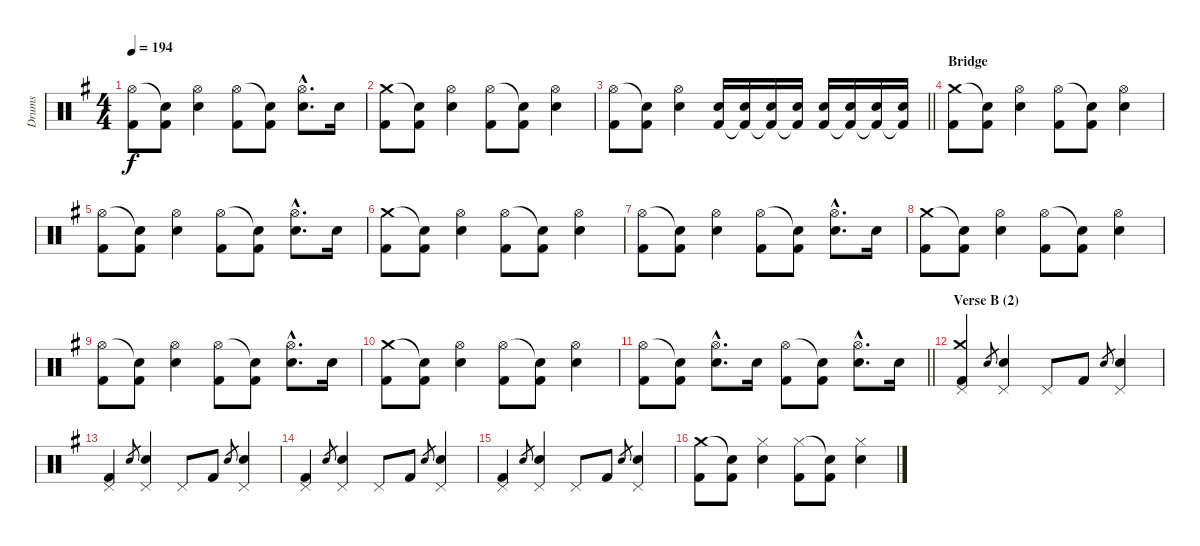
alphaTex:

\track ("Drums" "Drums") {instrument percussion}
\staff {score}
\articulation defaults
\ts (4 4)
\tempo 194
\clef neutral
\ks eminor
("Hi-Hat (open)" "Kick (hit) 2").8{dy f} ("Snare (hit)"{t} "Kick (hit) 2").8 ("Hi-Hat (open)" "Electric Snare (hit)").4 ("Hi-Hat (open)" "Kick (hit) 2").8 ("Snare (hit)"{t} "Kick (hit) 2").8 ("Hi-Hat (open)"{hac} "Electric Snare (hit)"{hac}).8{d} "Electric Snare (hit)".16 |
("Crash medium (hit)" "Kick (hit) 2").8 ("Snare (hit)"{t} "Kick (hit) 2").8 ("Hi-Hat (open)" "Electric Snare (hit)").4 ("Hi-Hat (open)" "Kick (hit) 2").8 ("Snare (hit)"{t} "Kick (hit) 2").8 ("Hi-Hat (open)" "Electric Snare (hit)").4 |
\barLineRight lightlight
("Hi-Hat (open)" "Kick (hit) 2").8 ("Snare (hit)"{t} "Kick (hit) 2").8 ("Hi-Hat (open)" "Electric Snare (hit)").4 ("Electric Snare (hit)" "Kick (hit) 2").16 ("Electric Snare (hit)" "Kick (hit) 2"{t}).16 ("Electric Snare (hit)" "Kick (hit) 2"{t}).16 ("Electric Snare (hit)" "Kick (hit) 2"{t}).16 ("Electric Snare (hit)" "Kick (hit) 2").16 ("Electric Snare (hit)" "Kick (hit) 2"{t}).16 ("Electric Snare (hit)" "Kick (hit) 2"{t}).16 ("Electric Snare (hit)" "Kick (hit) 2"{t}).16 |
\section ("" "Bridge")
("Crash medium (hit)" "Kick (hit) 2").8 ("Snare (hit)"{t} "Kick (hit) 2").8 ("Hi-Hat (open)" "Electric Snare (hit)").4 ("Hi-Hat (open)" "Kick (hit) 2").8 ("Snare (hit)"{t} "Kick (hit) 2").8 ("Hi-Hat (open)" "Electric Snare (hit)").4 |
("Hi-Hat (open)" "Kick (hit) 2").8 ("Snare (hit)"{t} "Kick (hit) 2").8 ("Hi-Hat (open)" "Electric Snare (hit)").4 ("Hi-Hat (open)" "Kick (hit) 2").8 ("Snare (hit)"{t} "Kick (hit) 2").8 ("Hi-Hat (open)"{hac} "Electric Snare (hit)"{hac}).8{d} "Electric Snare (hit)".16 |
("Crash medium (hit)" "Kick (hit) 2").8 ("Snare (hit)"{t} "Kick (hit) 2").8 ("Hi-Hat (open)" "Electric Snare (hit)").4 ("Hi-Hat (open)" "Kick (hit) 2").8 ("Snare (hit)"{t} "Kick (hit) 2").8 ("Hi-Hat (open)" "Electric Snare (hit)").4 |
("Hi-Hat (open)" "Kick (hit) 2").8 ("Snare (hit)"{t} "Kick (hit) 2").8 ("Hi-Hat (open)" "Electric Snare (hit)").4 ("Hi-Hat (open)" "Kick (hit) 2").8 ("Snare (hit)"{t} "Kick (hit) 2").8 ("Hi-Hat (open)"{hac} "Electric Snare (hit)"{hac}).8{d} "Electric Snare (hit)".16 |
("Crash medium (hit)" "Kick (hit) 2").8 ("Snare (hit)"{t} "Kick (hit) 2").8 ("Hi-Hat (open)" "Electric Snare (hit)").4 ("Hi-Hat (open)" "Kick (hit) 2").8 ("Snare (hit)"{t} "Kick (hit) 2").8 ("Hi-Hat (open)" "Electric Snare (hit)").4 |
("Hi-Hat (open)" "Kick (hit) 2").8 ("Snare (hit)"{t} "Kick (hit) 2").8 ("Hi-Hat (open)" "Electric Snare (hit)").4 ("Hi-Hat (open)" "Kick (hit) 2").8 ("Snare (hit)"{t} "Kick (hit) 2").8 ("Hi-Hat (open)"{hac} "Electric Snare (hit)"{hac}).8{d} "Electric Snare (hit)".16 |
("Crash medium (hit)" "Kick (hit) 2").8 ("Snare (hit)"{t} "Kick (hit) 2").8 ("Hi-Hat (open)" "Electric Snare (hit)").4 ("Hi-Hat (open)" "Kick (hit) 2").8 ("Snare (hit)"{t} "Kick (hit) 2").8 ("Hi-Hat (open)" "Electric Snare (hit)").4 |
\barLineRight lightlight
("Hi-Hat (open)" "Kick (hit) 2").8 ("Snare (hit)"{t} "Kick (hit) 2").8 ("Hi-Hat (open)"{hac} "Electric Snare (hit)"{hac}).8{d} "Electric Snare (hit)".16 ("Hi-Hat (open)" "Kick (hit) 2").8 ("Snare (hit)"{t} "Kick (hit) 2").8 ("Hi-Hat (open)"{hac} "Electric Snare (hit)"{hac}).8{d} "Electric Snare (hit)".16 |
\section ("" "Verse B (2)")
("Crash medium (hit)" "Pedal Hi-Hat (hit)" "Kick (hit) 2").4 "Electric Snare (hit)".8{gr} ("Pedal Hi-Hat (hit)" "Electric Snare (hit)").4 "Pedal Hi-Hat (hit)".8 "Kick (hit) 2".8 "Electric Snare (hit)".8{gr} ("Pedal Hi-Hat (hit)" "Electric Snare (hit)").4 |
("Pedal Hi-Hat (hit)" "Kick (hit) 2").4 "Electric Snare (hit)".8{gr} ("Pedal Hi-Hat (hit)" "Electric Snare (hit)").4 "Pedal Hi-Hat (hit)".8 "Kick (hit) 2".8 "Electric Snare (hit)".8{gr} ("Pedal Hi-Hat (hit)" "Electric Snare (hit)").4 |
("Pedal Hi-Hat (hit)" "Kick (hit) 2").4 "Electric Snare (hit)".8{gr} ("Pedal Hi-Hat (hit)" "Electric Snare (hit)").4 "Pedal Hi-Hat (hit)".8 "Kick (hit) 2".8 "Electric Snare (hit)".8{gr} ("Pedal Hi-Hat (hit)" "Electric Snare (hit)").4 |
("Pedal Hi-Hat (hit)" "Kick (hit) 2").4 "Electric Snare (hit)".8{gr} ("Pedal Hi-Hat (hit)" "Electric Snare (hit)").4 "Pedal Hi-Hat (hit)".8 "Kick (hit) 2".8 "Electric Snare (hit)".8{gr} ("Pedal Hi-Hat (hit)" "Electric Snare (hit)").4 |
("Crash medium (hit)" "Kick (hit) 2").8 ("Snare (hit)"{t} "Kick (hit) 2").8 ("Hi-Hat (closed)" "Electric Snare (hit)").4 ("Hi-Hat (closed)" "Kick (hit) 2").8 ("Snare (hit)"{t} "Kick (hit) 2").8 ("Hi-Hat (closed)" "Electric Snare (hit)").4
